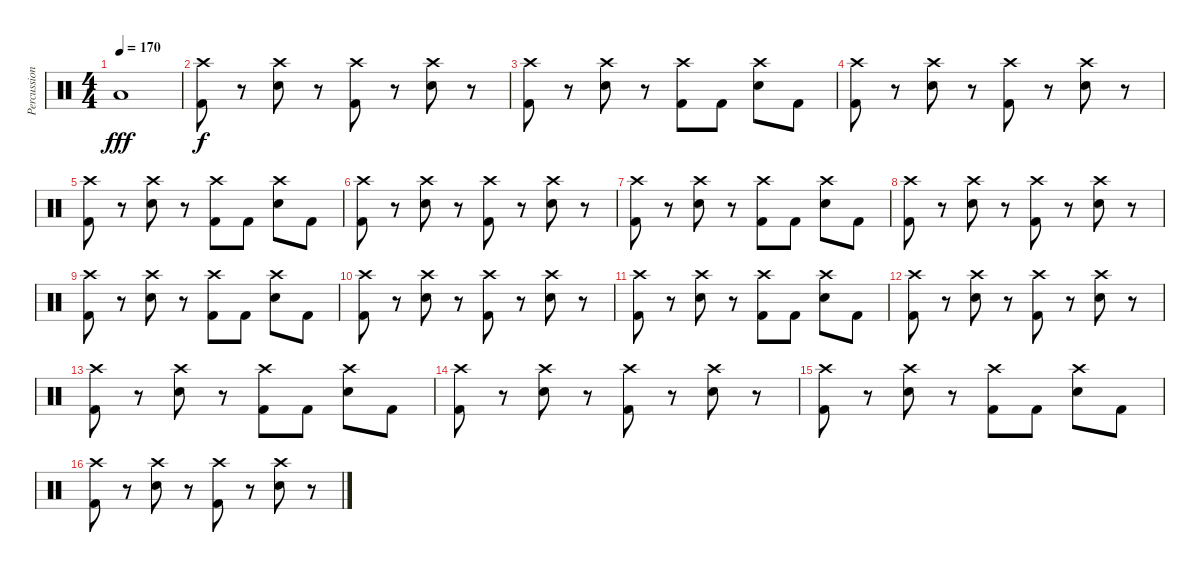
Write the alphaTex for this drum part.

\track ("Percussions" "Percussion") {instrument percussion}
\staff {score}
\articulation defaults
\ts (4 4)
\tempo 170
\clef neutral
\ks c "Low Floor Tom (hit)".1{dy fff}
|
("Kick (hit) 2" "Crash high (hit)").8{dy f} r.8 ("Electric Snare (hit)" "Crash high (hit)").8 r.8 ("Kick (hit) 2" "Crash high (hit)").8 r.8 ("Electric Snare (hit)" "Crash high (hit)").8 r.8 |
("Kick (hit) 2" "Crash high (hit)").8 r.8 ("Electric Snare (hit)" "Crash high (hit)").8 r.8 ("Kick (hit) 2" "Crash high (hit)").8 "Kick (hit) 2".8 ("Electric Snare (hit)" "Crash high (hit)").8 "Kick (hit) 2".8 |
("Kick (hit) 2" "Crash high (hit)").8 r.8 ("Electric Snare (hit)" "Crash high (hit)").8 r.8 ("Kick (hit) 2" "Crash high (hit)").8 r.8 ("Electric Snare (hit)" "Crash high (hit)").8 r.8 |
("Kick (hit) 2" "Crash high (hit)").8 r.8 ("Electric Snare (hit)" "Crash high (hit)").8 r.8 ("Kick (hit) 2" "Crash high (hit)").8 "Kick (hit) 2".8 ("Electric Snare (hit)" "Crash high (hit)").8 "Kick (hit) 2".8 |
("Kick (hit) 2" "Crash high (hit)").8 r.8 ("Electric Snare (hit)" "Crash high (hit)").8 r.8 ("Kick (hit) 2" "Crash high (hit)").8 r.8 ("Electric Snare (hit)" "Crash high (hit)").8 r.8 |
("Kick (hit) 2" "Crash high (hit)").8 r.8 ("Electric Snare (hit)" "Crash high (hit)").8 r.8 ("Kick (hit) 2" "Crash high (hit)").8 "Kick (hit) 2".8 ("Electric Snare (hit)" "Crash high (hit)").8 "Kick (hit) 2".8 |
("Kick (hit) 2" "Crash high (hit)").8 r.8 ("Electric Snare (hit)" "Crash high (hit)").8 r.8 ("Kick (hit) 2" "Crash high (hit)").8 r.8 ("Electric Snare (hit)" "Crash high (hit)").8 r.8 |
("Kick (hit) 2" "Crash high (hit)").8 r.8 ("Electric Snare (hit)" "Crash high (hit)").8 r.8 ("Kick (hit) 2" "Crash high (hit)").8 "Kick (hit) 2".8 ("Electric Snare (hit)" "Crash high (hit)").8 "Kick (hit) 2".8 |
("Kick (hit) 2" "Crash high (hit)").8 r.8 ("Electric Snare (hit)" "Crash high (hit)").8 r.8 ("Kick (hit) 2" "Crash high (hit)").8 r.8 ("Electric Snare (hit)" "Crash high (hit)").8 r.8 |
("Kick (hit) 2" "Crash high (hit)").8 r.8 ("Electric Snare (hit)" "Crash high (hit)").8 r.8 ("Kick (hit) 2" "Crash high (hit)").8 "Kick (hit) 2".8 ("Electric Snare (hit)" "Crash high (hit)").8 "Kick (hit) 2".8 |
("Kick (hit) 2" "Crash high (hit)").8 r.8 ("Electric Snare (hit)" "Crash high (hit)").8 r.8 ("Kick (hit) 2" "Crash high (hit)").8 r.8 ("Electric Snare (hit)" "Crash high (hit)").8 r.8 |
("Kick (hit) 2" "Crash high (hit)").8 r.8 ("Electric Snare (hit)" "Crash high (hit)").8 r.8 ("Kick (hit) 2" "Crash high (hit)").8 "Kick (hit) 2".8 ("Electric Snare (hit)" "Crash high (hit)").8 "Kick (hit) 2".8 |
("Kick (hit) 2" "Crash high (hit)").8 r.8 ("Electric Snare (hit)" "Crash high (hit)").8 r.8 ("Kick (hit) 2" "Crash high (hit)").8 r.8 ("Electric Snare (hit)" "Crash high (hit)").8 r.8 |
("Kick (hit) 2" "Crash high (hit)").8 r.8 ("Electric Snare (hit)" "Crash high (hit)").8 r.8 ("Kick (hit) 2" "Crash high (hit)").8 "Kick (hit) 2".8 ("Electric Snare (hit)" "Crash high (hit)").8 "Kick (hit) 2".8 |
("Kick (hit) 2" "Crash high (hit)").8 r.8 ("Electric Snare (hit)" "Crash high (hit)").8 r.8 ("Kick (hit) 2" "Crash high (hit)").8 r.8 ("Electric Snare (hit)" "Crash high (hit)").8 r.8
